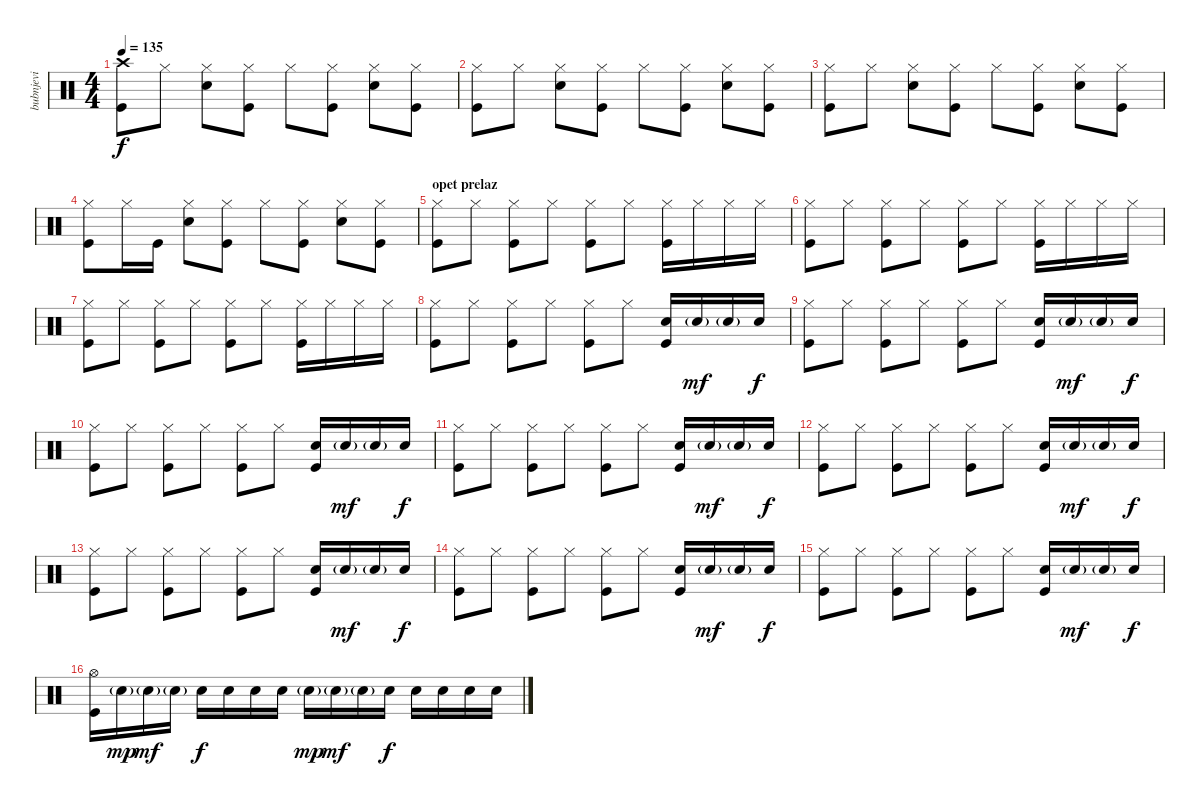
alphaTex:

\track ("bubnjevi" "bubnjevi") {instrument percussion}
\staff {score}
\articulation defaults
\ts (4 4)
\tempo 135
\clef neutral
\ks c
("Crash high (hit)" "Kick (hit)").8{dy f} "Hi-Hat (closed)".8 ("Hi-Hat (closed)" "Electric Snare (hit)").8 ("Hi-Hat (closed)" "Kick (hit)").8 "Hi-Hat (closed)".8 ("Hi-Hat (closed)" "Kick (hit)").8 ("Hi-Hat (closed)" "Electric Snare (hit)").8 ("Hi-Hat (closed)" "Kick (hit)").8 |
("Hi-Hat (closed)" "Kick (hit)").8 "Hi-Hat (closed)".8 ("Hi-Hat (closed)" "Electric Snare (hit)").8 ("Hi-Hat (closed)" "Kick (hit)").8 "Hi-Hat (closed)".8 ("Hi-Hat (closed)" "Kick (hit)").8 ("Hi-Hat (closed)" "Electric Snare (hit)").8 ("Hi-Hat (closed)" "Kick (hit)").8 |
("Hi-Hat (closed)" "Kick (hit)").8 "Hi-Hat (closed)".8 ("Hi-Hat (closed)" "Electric Snare (hit)").8 ("Hi-Hat (closed)" "Kick (hit)").8 "Hi-Hat (closed)".8 ("Hi-Hat (closed)" "Kick (hit)").8 ("Hi-Hat (closed)" "Electric Snare (hit)").8 ("Hi-Hat (closed)" "Kick (hit)").8 |
("Hi-Hat (closed)" "Kick (hit)").8 "Hi-Hat (closed)".16 "Kick (hit)".16 ("Hi-Hat (closed)" "Electric Snare (hit)").8 ("Hi-Hat (closed)" "Kick (hit)").8 "Hi-Hat (closed)".8 ("Hi-Hat (closed)" "Kick (hit)").8 ("Hi-Hat (closed)" "Electric Snare (hit)").8 ("Hi-Hat (closed)" "Kick (hit)").8 |
\section ("" "opet prelaz")
("Hi-Hat (closed)" "Kick (hit)").8 "Hi-Hat (closed)".8 ("Hi-Hat (closed)" "Kick (hit)").8 "Hi-Hat (closed)".8 ("Hi-Hat (closed)" "Kick (hit)").8 "Hi-Hat (closed)".8 ("Hi-Hat (closed)" "Kick (hit)").16 "Hi-Hat (closed)".16 "Hi-Hat (closed)".16 "Hi-Hat (closed)".16 |
("Hi-Hat (closed)" "Kick (hit)").8 "Hi-Hat (closed)".8 ("Hi-Hat (closed)" "Kick (hit)").8 "Hi-Hat (closed)".8 ("Hi-Hat (closed)" "Kick (hit)").8 "Hi-Hat (closed)".8 ("Hi-Hat (closed)" "Kick (hit)").16 "Hi-Hat (closed)".16 "Hi-Hat (closed)".16 "Hi-Hat (closed)".16 |
("Hi-Hat (closed)" "Kick (hit)").8 "Hi-Hat (closed)".8 ("Hi-Hat (closed)" "Kick (hit)").8 "Hi-Hat (closed)".8 ("Hi-Hat (closed)" "Kick (hit)").8 "Hi-Hat (closed)".8 ("Hi-Hat (closed)" "Kick (hit)").16 "Hi-Hat (closed)".16 "Hi-Hat (closed)".16 "Hi-Hat (closed)".16 |
("Hi-Hat (closed)" "Kick (hit)").8 "Hi-Hat (closed)".8 ("Hi-Hat (closed)" "Kick (hit)").8 "Hi-Hat (closed)".8 ("Hi-Hat (closed)" "Kick (hit)").8 "Hi-Hat (closed)".8 ("Electric Snare (hit)" "Kick (hit)").16 "Electric Snare (hit)"{g}.16{dy mf} "Electric Snare (hit)"{g}.16 "Electric Snare (hit)".16{dy f} |
("Hi-Hat (closed)" "Kick (hit)").8 "Hi-Hat (closed)".8 ("Hi-Hat (closed)" "Kick (hit)").8 "Hi-Hat (closed)".8 ("Hi-Hat (closed)" "Kick (hit)").8 "Hi-Hat (closed)".8 ("Electric Snare (hit)" "Kick (hit)").16 "Electric Snare (hit)"{g}.16{dy mf} "Electric Snare (hit)"{g}.16 "Electric Snare (hit)".16{dy f} |
("Hi-Hat (closed)" "Kick (hit)").8 "Hi-Hat (closed)".8 ("Hi-Hat (closed)" "Kick (hit)").8 "Hi-Hat (closed)".8 ("Hi-Hat (closed)" "Kick (hit)").8 "Hi-Hat (closed)".8 ("Electric Snare (hit)" "Kick (hit)").16 "Electric Snare (hit)"{g}.16{dy mf} "Electric Snare (hit)"{g}.16 "Electric Snare (hit)".16{dy f} |
("Hi-Hat (closed)" "Kick (hit)").8 "Hi-Hat (closed)".8 ("Hi-Hat (closed)" "Kick (hit)").8 "Hi-Hat (closed)".8 ("Hi-Hat (closed)" "Kick (hit)").8 "Hi-Hat (closed)".8 ("Electric Snare (hit)" "Kick (hit)").16 "Electric Snare (hit)"{g}.16{dy mf} "Electric Snare (hit)"{g}.16 "Electric Snare (hit)".16{dy f} |
("Hi-Hat (closed)" "Kick (hit)").8 "Hi-Hat (closed)".8 ("Hi-Hat (closed)" "Kick (hit)").8 "Hi-Hat (closed)".8 ("Hi-Hat (closed)" "Kick (hit)").8 "Hi-Hat (closed)".8 ("Electric Snare (hit)" "Kick (hit)").16 "Electric Snare (hit)"{g}.16{dy mf} "Electric Snare (hit)"{g}.16 "Electric Snare (hit)".16{dy f} |
("Hi-Hat (closed)" "Kick (hit)").8 "Hi-Hat (closed)".8 ("Hi-Hat (closed)" "Kick (hit)").8 "Hi-Hat (closed)".8 ("Hi-Hat (closed)" "Kick (hit)").8 "Hi-Hat (closed)".8 ("Electric Snare (hit)" "Kick (hit)").16 "Electric Snare (hit)"{g}.16{dy mf} "Electric Snare (hit)"{g}.16 "Electric Snare (hit)".16{dy f} |
("Hi-Hat (closed)" "Kick (hit)").8 "Hi-Hat (closed)".8 ("Hi-Hat (closed)" "Kick (hit)").8 "Hi-Hat (closed)".8 ("Hi-Hat (closed)" "Kick (hit)").8 "Hi-Hat (closed)".8 ("Electric Snare (hit)" "Kick (hit)").16 "Electric Snare (hit)"{g}.16{dy mf} "Electric Snare (hit)"{g}.16 "Electric Snare (hit)".16{dy f} |
("Hi-Hat (closed)" "Kick (hit)").8 "Hi-Hat (closed)".8 ("Hi-Hat (closed)" "Kick (hit)").8 "Hi-Hat (closed)".8 ("Hi-Hat (closed)" "Kick (hit)").8 "Hi-Hat (closed)".8 ("Electric Snare (hit)" "Kick (hit)").16 "Electric Snare (hit)"{g}.16{dy mf} "Electric Snare (hit)"{g}.16 "Electric Snare (hit)".16{dy f} |
("Hi-Hat (open)" "Kick (hit)").16 "Electric Snare (hit)"{g}.16{dy mp} "Electric Snare (hit)"{g}.16{dy mf} "Electric Snare (hit)"{g}.16 "Electric Snare (hit)".16{dy f} "Electric Snare (hit)".16 "Electric Snare (hit)".16 "Electric Snare (hit)".16 "Electric Snare (hit)"{g}.16{dy mp} "Electric Snare (hit)"{g}.16{dy mf} "Electric Snare (hit)"{g}.16 "Electric Snare (hit)".16{dy f} "Electric Snare (hit)".16 "Electric Snare (hit)".16 "Electric Snare (hit)".16 "Electric Snare (hit)".16
